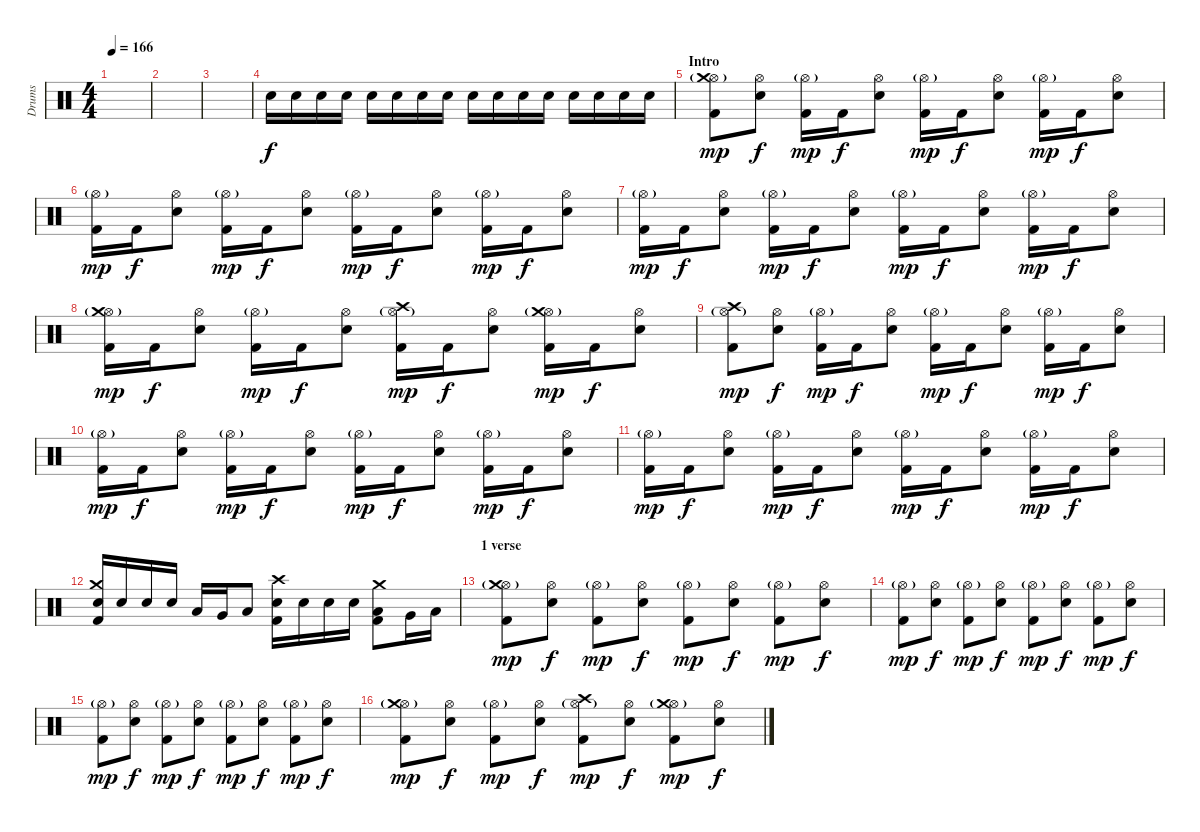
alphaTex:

\track ("Drums" "Drums") {instrument percussion}
\staff {score}
\articulation defaults
\ts (4 4)
\tempo 166
\clef neutral
\ks c
|
|
|
"Electric Snare (hit)".16{volume 5} "Electric Snare (hit)".16{volume 16} "Electric Snare (hit)".16 "Electric Snare (hit)".16 "Electric Snare (hit)".16 "Electric Snare (hit)".16 "Electric Snare (hit)".16 "Electric Snare (hit)".16 "Electric Snare (hit)".16 "Electric Snare (hit)".16 "Electric Snare (hit)".16 "Electric Snare (hit)".16 "Electric Snare (hit)".16 "Electric Snare (hit)".16 "Electric Snare (hit)".16 "Electric Snare (hit)".16 |
\section ("" "Intro")
("Hi-Hat (open)"{g} "Crash medium (hit)" "Kick (hit) 2").8{dy mp} ("Hi-Hat (open)" "Electric Snare (hit)").8{dy f} ("Hi-Hat (open)"{g} "Kick (hit) 2").16{dy mp} "Kick (hit) 2".16{dy f} ("Hi-Hat (open)" "Electric Snare (hit)").8 ("Hi-Hat (open)"{g} "Kick (hit) 2").16{dy mp} "Kick (hit) 2".16{dy f} ("Hi-Hat (open)" "Electric Snare (hit)").8 ("Hi-Hat (open)"{g} "Kick (hit) 2").16{dy mp} "Kick (hit) 2".16{dy f} ("Hi-Hat (open)" "Electric Snare (hit)").8 |
("Hi-Hat (open)"{g} "Kick (hit) 2").16{dy mp} "Kick (hit) 2".16{dy f} ("Hi-Hat (open)" "Electric Snare (hit)").8 ("Hi-Hat (open)"{g} "Kick (hit) 2").16{dy mp} "Kick (hit) 2".16{dy f} ("Hi-Hat (open)" "Electric Snare (hit)").8 ("Hi-Hat (open)"{g} "Kick (hit) 2").16{dy mp} "Kick (hit) 2".16{dy f} ("Hi-Hat (open)" "Electric Snare (hit)").8 ("Hi-Hat (open)"{g} "Kick (hit) 2").16{dy mp} "Kick (hit) 2".16{dy f} ("Hi-Hat (open)" "Electric Snare (hit)").8 |
("Hi-Hat (open)"{g} "Kick (hit) 2").16{dy mp} "Kick (hit) 2".16{dy f} ("Hi-Hat (open)" "Electric Snare (hit)").8 ("Hi-Hat (open)"{g} "Kick (hit) 2").16{dy mp} "Kick (hit) 2".16{dy f} ("Hi-Hat (open)" "Electric Snare (hit)").8 ("Hi-Hat (open)"{g} "Kick (hit) 2").16{dy mp} "Kick (hit) 2".16{dy f} ("Hi-Hat (open)" "Electric Snare (hit)").8 ("Hi-Hat (open)"{g} "Kick (hit) 2").16{dy mp} "Kick (hit) 2".16{dy f} ("Hi-Hat (open)" "Electric Snare (hit)").8 |
("Hi-Hat (open)"{g} "Crash medium (hit)" "Kick (hit) 2").16{dy mp} "Kick (hit) 2".16{dy f} ("Hi-Hat (open)" "Electric Snare (hit)").8 ("Hi-Hat (open)"{g} "Kick (hit) 2").16{dy mp} "Kick (hit) 2".16{dy f} ("Hi-Hat (open)" "Electric Snare (hit)").8 ("Hi-Hat (open)"{g} "Crash high (hit)" "Kick (hit) 2").16{dy mp} "Kick (hit) 2".16{dy f} ("Hi-Hat (open)" "Electric Snare (hit)").8 ("Hi-Hat (open)"{g} "Crash medium (hit)" "Kick (hit) 2").16{dy mp} "Kick (hit) 2".16{dy f} ("Hi-Hat (open)" "Electric Snare (hit)").8 |
("Hi-Hat (open)"{g} "Crash high (hit)" "Kick (hit) 2").8{dy mp} ("Hi-Hat (open)" "Electric Snare (hit)").8{dy f} ("Hi-Hat (open)"{g} "Kick (hit) 2").16{dy mp} "Kick (hit) 2".16{dy f} ("Hi-Hat (open)" "Electric Snare (hit)").8 ("Hi-Hat (open)"{g} "Kick (hit) 2").16{dy mp} "Kick (hit) 2".16{dy f} ("Hi-Hat (open)" "Electric Snare (hit)").8 ("Hi-Hat (open)"{g} "Kick (hit) 2").16{dy mp} "Kick (hit) 2".16{dy f} ("Hi-Hat (open)" "Electric Snare (hit)").8 |
("Hi-Hat (open)"{g} "Kick (hit) 2").16{dy mp} "Kick (hit) 2".16{dy f} ("Hi-Hat (open)" "Electric Snare (hit)").8 ("Hi-Hat (open)"{g} "Kick (hit) 2").16{dy mp} "Kick (hit) 2".16{dy f} ("Hi-Hat (open)" "Electric Snare (hit)").8 ("Hi-Hat (open)"{g} "Kick (hit) 2").16{dy mp} "Kick (hit) 2".16{dy f} ("Hi-Hat (open)" "Electric Snare (hit)").8 ("Hi-Hat (open)"{g} "Kick (hit) 2").16{dy mp} "Kick (hit) 2".16{dy f} ("Hi-Hat (open)" "Electric Snare (hit)").8 |
("Hi-Hat (open)"{g} "Kick (hit) 2").16{dy mp} "Kick (hit) 2".16{dy f} ("Hi-Hat (open)" "Electric Snare (hit)").8 ("Hi-Hat (open)"{g} "Kick (hit) 2").16{dy mp} "Kick (hit) 2".16{dy f} ("Hi-Hat (open)" "Electric Snare (hit)").8 ("Hi-Hat (open)"{g} "Kick (hit) 2").16{dy mp} "Kick (hit) 2".16{dy f} ("Hi-Hat (open)" "Electric Snare (hit)").8 ("Hi-Hat (open)"{g} "Kick (hit) 2").16{dy mp} "Kick (hit) 2".16{dy f} ("Hi-Hat (open)" "Electric Snare (hit)").8 |
("Crash medium (hit)" "Electric Snare (hit)" "Kick (hit) 2").16 "Electric Snare (hit)".16 "Electric Snare (hit)".16 "Electric Snare (hit)".16 "Low Tom (hit)".16 "Very Low Tom (hit)".16 "Low Floor Tom (hit)".8 ("Crash high (hit)" "Electric Snare (hit)" "Kick (hit) 2").16 "Electric Snare (hit)".16 "Electric Snare (hit)".16 "Electric Snare (hit)".16 ("Crash medium (hit)" "Low Tom (hit)" "Kick (hit) 2").8 "Very Low Tom (hit)".16 "Low Floor Tom (hit)".16 |
\section ("" "1 verse")
("Hi-Hat (open)"{g} "Crash medium (hit)" "Kick (hit) 2").8{dy mp} ("Hi-Hat (open)" "Electric Snare (hit)").8{dy f} ("Hi-Hat (open)"{g} "Kick (hit) 2").8{dy mp} ("Hi-Hat (open)" "Electric Snare (hit)").8{dy f} ("Hi-Hat (open)"{g} "Kick (hit) 2").8{dy mp} ("Hi-Hat (open)" "Electric Snare (hit)").8{dy f} ("Hi-Hat (open)"{g} "Kick (hit) 2").8{dy mp} ("Hi-Hat (open)" "Electric Snare (hit)").8{dy f} |
("Hi-Hat (open)"{g} "Kick (hit) 2").8{dy mp} ("Hi-Hat (open)" "Electric Snare (hit)").8{dy f} ("Hi-Hat (open)"{g} "Kick (hit) 2").8{dy mp} ("Hi-Hat (open)" "Electric Snare (hit)").8{dy f} ("Hi-Hat (open)"{g} "Kick (hit) 2").8{dy mp} ("Hi-Hat (open)" "Electric Snare (hit)").8{dy f} ("Hi-Hat (open)"{g} "Kick (hit) 2").8{dy mp} ("Hi-Hat (open)" "Electric Snare (hit)").8{dy f} |
("Hi-Hat (open)"{g} "Kick (hit) 2").8{dy mp} ("Hi-Hat (open)" "Electric Snare (hit)").8{dy f} ("Hi-Hat (open)"{g} "Kick (hit) 2").8{dy mp} ("Hi-Hat (open)" "Electric Snare (hit)").8{dy f} ("Hi-Hat (open)"{g} "Kick (hit) 2").8{dy mp} ("Hi-Hat (open)" "Electric Snare (hit)").8{dy f} ("Hi-Hat (open)"{g} "Kick (hit) 2").8{dy mp} ("Hi-Hat (open)" "Electric Snare (hit)").8{dy f} |
("Hi-Hat (open)"{g} "Crash medium (hit)" "Kick (hit) 2").8{dy mp} ("Hi-Hat (open)" "Electric Snare (hit)").8{dy f} ("Hi-Hat (open)"{g} "Kick (hit) 2").8{dy mp} ("Hi-Hat (open)" "Electric Snare (hit)").8{dy f} ("Hi-Hat (open)"{g} "Crash high (hit)" "Kick (hit) 2").8{dy mp} ("Hi-Hat (open)" "Electric Snare (hit)").8{dy f} ("Hi-Hat (open)"{g} "Crash medium (hit)" "Kick (hit) 2").8{dy mp} ("Hi-Hat (open)" "Electric Snare (hit)").8{dy f}
